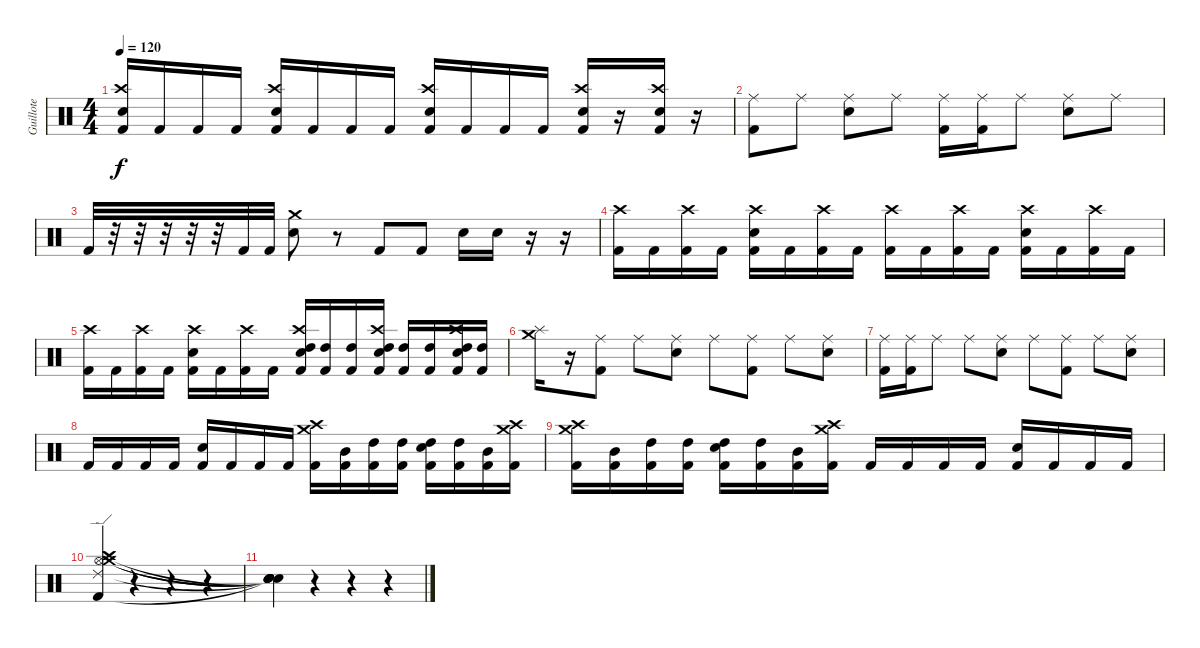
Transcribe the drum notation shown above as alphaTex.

\track ("Guillote" "Guillote") {instrument percussion}
\staff {score}
\articulation defaults
\ts (4 4)
\tempo 120
\clef neutral
\ks c
("Kick (hit) 2" "Crash high (hit)" "Electric Snare (hit)").16{dy f} "Kick (hit) 2".16 "Kick (hit) 2".16 "Kick (hit) 2".16 ("Kick (hit) 2" "Crash high (hit)" "Electric Snare (hit)").16 "Kick (hit) 2".16 "Kick (hit) 2".16 "Kick (hit) 2".16 ("Kick (hit) 2" "Crash high (hit)" "Electric Snare (hit)").16 "Kick (hit) 2".16 "Kick (hit) 2".16 "Kick (hit) 2".16 ("Kick (hit) 2" "Crash high (hit)" "Electric Snare (hit)").16 r.16 ("Kick (hit) 2" "Crash high (hit)" "Electric Snare (hit)").16 r.16 |
("Ride (middle)" "Kick (hit) 2").8 "Ride (middle)".8 ("Ride (middle)" "Electric Snare (hit)").8 "Ride (middle)".8 ("Ride (middle)" "Kick (hit) 2").16 ("Ride (middle)" "Kick (hit) 2").16 "Ride (middle)".8 ("Ride (middle)" "Electric Snare (hit)").8 "Ride (middle)".8 |
"Kick (hit) 2".32 r.32 r.32 r.32 r.32 r.32 "Kick (hit) 2".32 "Kick (hit) 2".32 ("Electric Snare (hit)" "Crash medium (hit)").8 r.8 "Kick (hit) 2".8 "Kick (hit) 2".8 "Electric Snare (hit)".16 "Electric Snare (hit)".16 r.16 r.16 |
("Kick (hit) 2" "Crash high (hit)").16 "Kick (hit) 2".16 ("Kick (hit) 2" "Crash high (hit)").16 "Kick (hit) 2".16 ("Kick (hit) 2" "Crash high (hit)" "Electric Snare (hit)").16 "Kick (hit) 2".16 ("Kick (hit) 2" "Crash high (hit)").16 "Kick (hit) 2".16 ("Kick (hit) 2" "Crash high (hit)").16 "Kick (hit) 2".16 ("Kick (hit) 2" "Crash high (hit)").16 "Kick (hit) 2".16 ("Kick (hit) 2" "Crash high (hit)" "Electric Snare (hit)").16 "Kick (hit) 2".16 ("Kick (hit) 2" "Crash high (hit)").16 "Kick (hit) 2".16 |
("Kick (hit) 2" "Crash high (hit)").16 "Kick (hit) 2".16 ("Kick (hit) 2" "Crash high (hit)").16 "Kick (hit) 2".16 ("Kick (hit) 2" "Crash high (hit)" "Electric Snare (hit)").16 "Kick (hit) 2".16 ("Kick (hit) 2" "Crash high (hit)").16 "Kick (hit) 2".16 ("Kick (hit) 2" "Crash high (hit)" "High Tom (hit)" "Electric Snare (hit)").16 ("Kick (hit) 2" "High Tom (hit)").16 ("Kick (hit) 2" "High Tom (hit)").16 ("Kick (hit) 2" "Crash high (hit)" "High Tom (hit)" "Electric Snare (hit)").16 ("Kick (hit) 2" "High Tom (hit)").16 ("Kick (hit) 2" "High Tom (hit)").16 ("Kick (hit) 2" "Crash high (hit)" "High Tom (hit)" "Electric Snare (hit)").16 ("Kick (hit) 2" "High Tom (hit)").16 |
("Crash medium (hit)" "Splash (hit)").16 r.16 ("Ride (middle)" "Kick (hit) 2").8 "Ride (middle)".8 ("Ride (middle)" "Electric Snare (hit)").8 "Ride (middle)".8 ("Ride (middle)" "Kick (hit) 2").8 "Ride (middle)".8 ("Ride (middle)" "Electric Snare (hit)").8 |
("Ride (middle)" "Kick (hit) 2").16 ("Ride (middle)" "Kick (hit) 2").16 "Ride (middle)".8 "Ride (middle)".8 ("Ride (middle)" "Electric Snare (hit)").8 "Ride (middle)".8 ("Ride (middle)" "Kick (hit) 2").8 "Ride (middle)".8 ("Ride (middle)" "Electric Snare (hit)").8 |
"Kick (hit) 2".16 "Kick (hit) 2".16 "Kick (hit) 2".16 "Kick (hit) 2".16 ("Kick (hit) 2" "Electric Snare (hit)").16 "Kick (hit) 2".16 "Kick (hit) 2".16 "Kick (hit) 2".16 ("Kick (hit) 2" "Crash high (hit)" "Crash medium (hit)").16 ("Kick (hit) 2" "Mid Tom (hit)").16 ("Kick (hit) 2" "High Tom (hit)").16 ("Kick (hit) 2" "High Tom (hit)").16 ("Kick (hit) 2" "High Tom (hit)" "Electric Snare (hit)").16 ("Kick (hit) 2" "High Tom (hit)").16 ("Kick (hit) 2" "Mid Tom (hit)").16 ("Kick (hit) 2" "Crash high (hit)" "Crash medium (hit)").16 |
("Kick (hit) 2" "Crash high (hit)" "Crash medium (hit)").16 ("Kick (hit) 2" "Mid Tom (hit)").16 ("Kick (hit) 2" "High Tom (hit)").16 ("Kick (hit) 2" "High Tom (hit)").16 ("Kick (hit) 2" "High Tom (hit)" "Electric Snare (hit)").16 ("Kick (hit) 2" "High Tom (hit)").16 ("Kick (hit) 2" "Mid Tom (hit)").16 ("Kick (hit) 2" "Crash high (hit)" "Crash medium (hit)").16 "Kick (hit) 2".16 "Kick (hit) 2".16 "Kick (hit) 2".16 "Kick (hit) 2".16 ("Kick (hit) 2" "Electric Snare (hit)").16 "Kick (hit) 2".16 "Kick (hit) 2".16 "Kick (hit) 2".16 |
("Hi-Hat (open)" "Crash high (hit)" "Crash medium (hit)" "Ride (edge) 2" "Kick (hit) 2").4 r.4 r.4 r.4 |
("Snare (hit)"{t} "Snare (hit)"{t} "Snare (hit)"{t} "Snare (hit)"{t} "Snare (hit)"{t}).4 r.4 r.4 r.4
